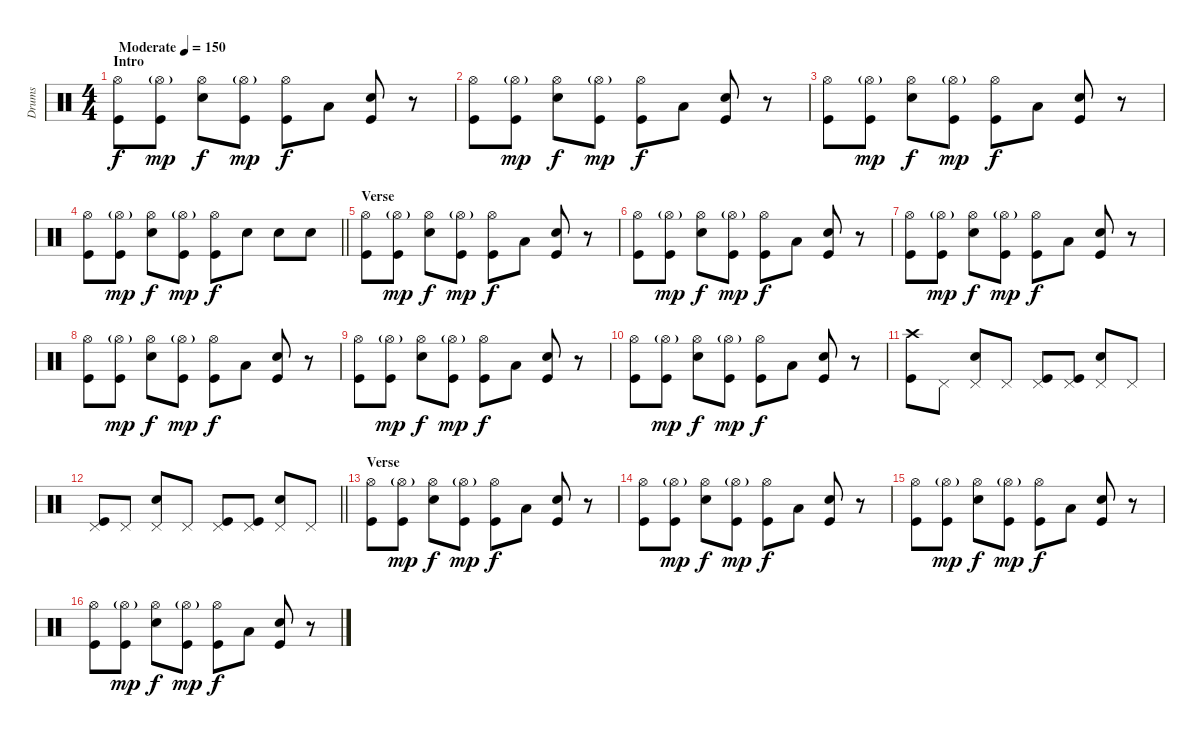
\track ("Drums" "Drums") {instrument percussion}
\staff {score}
\articulation defaults
\ts (4 4)
\section ("" "Intro")
\tempo (150 "Moderate")
\clef neutral
\ks c
("Hi-Hat (open)" "Kick (hit)").8{dy f} ("Hi-Hat (open)"{g} "Kick (hit)").8{dy mp} ("Hi-Hat (open)" "Snare (hit) 2").8{dy f} ("Hi-Hat (open)"{g} "Kick (hit)").8{dy mp} ("Hi-Hat (open)" "Kick (hit)").8{dy f} "Low Floor Tom (hit)".8 ("Snare (hit) 2" "Kick (hit)").8 r.8 |
("Hi-Hat (open)" "Kick (hit)").8 ("Hi-Hat (open)"{g} "Kick (hit)").8{dy mp} ("Hi-Hat (open)" "Snare (hit) 2").8{dy f} ("Hi-Hat (open)"{g} "Kick (hit)").8{dy mp} ("Hi-Hat (open)" "Kick (hit)").8{dy f} "Low Floor Tom (hit)".8 ("Snare (hit) 2" "Kick (hit)").8 r.8 |
("Hi-Hat (open)" "Kick (hit)").8 ("Hi-Hat (open)"{g} "Kick (hit)").8{dy mp} ("Hi-Hat (open)" "Snare (hit) 2").8{dy f} ("Hi-Hat (open)"{g} "Kick (hit)").8{dy mp} ("Hi-Hat (open)" "Kick (hit)").8{dy f} "Low Floor Tom (hit)".8 ("Snare (hit) 2" "Kick (hit)").8 r.8 |
\barLineRight lightlight
("Hi-Hat (open)" "Kick (hit)").8 ("Hi-Hat (open)"{g} "Kick (hit)").8{dy mp} ("Hi-Hat (open)" "Snare (hit) 2").8{dy f} ("Hi-Hat (open)"{g} "Kick (hit)").8{dy mp} ("Hi-Hat (open)" "Kick (hit)").8{dy f} "Snare (hit) 2".8 "Snare (hit) 2".8 "Snare (hit) 2".8 |
\section ("" "Verse")
("Hi-Hat (open)" "Kick (hit)").8 ("Hi-Hat (open)"{g} "Kick (hit)").8{dy mp} ("Hi-Hat (open)" "Snare (hit) 2").8{dy f} ("Hi-Hat (open)"{g} "Kick (hit)").8{dy mp} ("Hi-Hat (open)" "Kick (hit)").8{dy f} "Low Floor Tom (hit)".8 ("Snare (hit) 2" "Kick (hit)").8 r.8 |
("Hi-Hat (open)" "Kick (hit)").8 ("Hi-Hat (open)"{g} "Kick (hit)").8{dy mp} ("Hi-Hat (open)" "Snare (hit) 2").8{dy f} ("Hi-Hat (open)"{g} "Kick (hit)").8{dy mp} ("Hi-Hat (open)" "Kick (hit)").8{dy f} "Low Floor Tom (hit)".8 ("Snare (hit) 2" "Kick (hit)").8 r.8 |
("Hi-Hat (open)" "Kick (hit)").8 ("Hi-Hat (open)"{g} "Kick (hit)").8{dy mp} ("Hi-Hat (open)" "Snare (hit) 2").8{dy f} ("Hi-Hat (open)"{g} "Kick (hit)").8{dy mp} ("Hi-Hat (open)" "Kick (hit)").8{dy f} "Low Floor Tom (hit)".8 ("Snare (hit) 2" "Kick (hit)").8 r.8 |
("Hi-Hat (open)" "Kick (hit)").8 ("Hi-Hat (open)"{g} "Kick (hit)").8{dy mp} ("Hi-Hat (open)" "Snare (hit) 2").8{dy f} ("Hi-Hat (open)"{g} "Kick (hit)").8{dy mp} ("Hi-Hat (open)" "Kick (hit)").8{dy f} "Low Floor Tom (hit)".8 ("Snare (hit) 2" "Kick (hit)").8 r.8 |
("Hi-Hat (open)" "Kick (hit)").8 ("Hi-Hat (open)"{g} "Kick (hit)").8{dy mp} ("Hi-Hat (open)" "Snare (hit) 2").8{dy f} ("Hi-Hat (open)"{g} "Kick (hit)").8{dy mp} ("Hi-Hat (open)" "Kick (hit)").8{dy f} "Low Floor Tom (hit)".8 ("Snare (hit) 2" "Kick (hit)").8 r.8 |
("Hi-Hat (open)" "Kick (hit)").8 ("Hi-Hat (open)"{g} "Kick (hit)").8{dy mp} ("Hi-Hat (open)" "Snare (hit) 2").8{dy f} ("Hi-Hat (open)"{g} "Kick (hit)").8{dy mp} ("Hi-Hat (open)" "Kick (hit)").8{dy f} "Low Floor Tom (hit)".8 ("Snare (hit) 2" "Kick (hit)").8 r.8 |
("Crash high (hit)" "Kick (hit)").8 "Pedal Hi-Hat (hit)".8 ("Pedal Hi-Hat (hit)" "Snare (hit) 2").8 "Pedal Hi-Hat (hit)".8 ("Pedal Hi-Hat (hit)" "Kick (hit)").8 ("Pedal Hi-Hat (hit)" "Kick (hit)").8 ("Pedal Hi-Hat (hit)" "Snare (hit) 2").8 "Pedal Hi-Hat (hit)".8 |
\barLineRight lightlight
("Pedal Hi-Hat (hit)" "Kick (hit)").8 "Pedal Hi-Hat (hit)".8 ("Pedal Hi-Hat (hit)" "Snare (hit) 2").8 "Pedal Hi-Hat (hit)".8 ("Pedal Hi-Hat (hit)" "Kick (hit)").8 ("Pedal Hi-Hat (hit)" "Kick (hit)").8 ("Pedal Hi-Hat (hit)" "Snare (hit) 2").8 "Pedal Hi-Hat (hit)".8 |
\section ("" "Verse")
("Hi-Hat (open)" "Kick (hit)").8 ("Hi-Hat (open)"{g} "Kick (hit)").8{dy mp} ("Hi-Hat (open)" "Snare (hit) 2").8{dy f} ("Hi-Hat (open)"{g} "Kick (hit)").8{dy mp} ("Hi-Hat (open)" "Kick (hit)").8{dy f} "Low Floor Tom (hit)".8 ("Snare (hit) 2" "Kick (hit)").8 r.8 |
("Hi-Hat (open)" "Kick (hit)").8 ("Hi-Hat (open)"{g} "Kick (hit)").8{dy mp} ("Hi-Hat (open)" "Snare (hit) 2").8{dy f} ("Hi-Hat (open)"{g} "Kick (hit)").8{dy mp} ("Hi-Hat (open)" "Kick (hit)").8{dy f} "Low Floor Tom (hit)".8 ("Snare (hit) 2" "Kick (hit)").8 r.8 |
("Hi-Hat (open)" "Kick (hit)").8 ("Hi-Hat (open)"{g} "Kick (hit)").8{dy mp} ("Hi-Hat (open)" "Snare (hit) 2").8{dy f} ("Hi-Hat (open)"{g} "Kick (hit)").8{dy mp} ("Hi-Hat (open)" "Kick (hit)").8{dy f} "Low Floor Tom (hit)".8 ("Snare (hit) 2" "Kick (hit)").8 r.8 |
("Hi-Hat (open)" "Kick (hit)").8 ("Hi-Hat (open)"{g} "Kick (hit)").8{dy mp} ("Hi-Hat (open)" "Snare (hit) 2").8{dy f} ("Hi-Hat (open)"{g} "Kick (hit)").8{dy mp} ("Hi-Hat (open)" "Kick (hit)").8{dy f} "Low Floor Tom (hit)".8 ("Snare (hit) 2" "Kick (hit)").8 r.8
